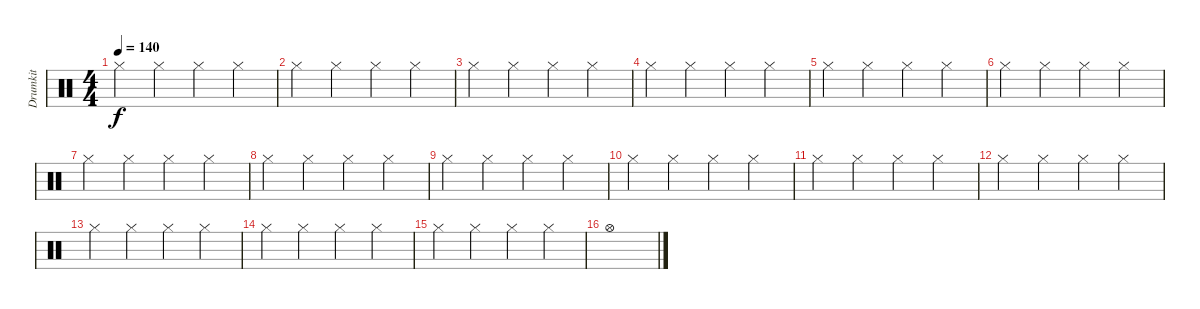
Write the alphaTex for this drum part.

\track ("Drumkit" "Drumkit") {instrument percussion}
\staff {score}
\articulation defaults
\ts (4 4)
\tempo 140
\clef neutral
\ks c "Hi-Hat (closed)".4{dy f} "Hi-Hat (closed)".4 "Hi-Hat (closed)".4 "Hi-Hat (closed)".4
|
"Hi-Hat (closed)".4 "Hi-Hat (closed)".4 "Hi-Hat (closed)".4 "Hi-Hat (closed)".4 |
"Hi-Hat (closed)".4 "Hi-Hat (closed)".4 "Hi-Hat (closed)".4 "Hi-Hat (closed)".4 |
"Hi-Hat (closed)".4 "Hi-Hat (closed)".4 "Hi-Hat (closed)".4 "Hi-Hat (closed)".4 |
"Hi-Hat (closed)".4 "Hi-Hat (closed)".4 "Hi-Hat (closed)".4 "Hi-Hat (closed)".4 |
"Hi-Hat (closed)".4 "Hi-Hat (closed)".4 "Hi-Hat (closed)".4 "Hi-Hat (closed)".4 |
"Hi-Hat (closed)".4 "Hi-Hat (closed)".4 "Hi-Hat (closed)".4 "Hi-Hat (closed)".4 |
"Hi-Hat (closed)".4 "Hi-Hat (closed)".4 "Hi-Hat (closed)".4 "Hi-Hat (closed)".4 |
"Hi-Hat (closed)".4 "Hi-Hat (closed)".4 "Hi-Hat (closed)".4 "Hi-Hat (closed)".4 |
"Hi-Hat (closed)".4 "Hi-Hat (closed)".4 "Hi-Hat (closed)".4 "Hi-Hat (closed)".4 |
"Hi-Hat (closed)".4 "Hi-Hat (closed)".4 "Hi-Hat (closed)".4 "Hi-Hat (closed)".4 |
"Hi-Hat (closed)".4 "Hi-Hat (closed)".4 "Hi-Hat (closed)".4 "Hi-Hat (closed)".4 |
"Hi-Hat (closed)".4 "Hi-Hat (closed)".4 "Hi-Hat (closed)".4 "Hi-Hat (closed)".4 |
"Hi-Hat (closed)".4 "Hi-Hat (closed)".4 "Hi-Hat (closed)".4 "Hi-Hat (closed)".4 |
"Hi-Hat (closed)".4 "Hi-Hat (closed)".4 "Hi-Hat (closed)".4 "Hi-Hat (closed)".4 |
"Hi-Hat (open)".1
